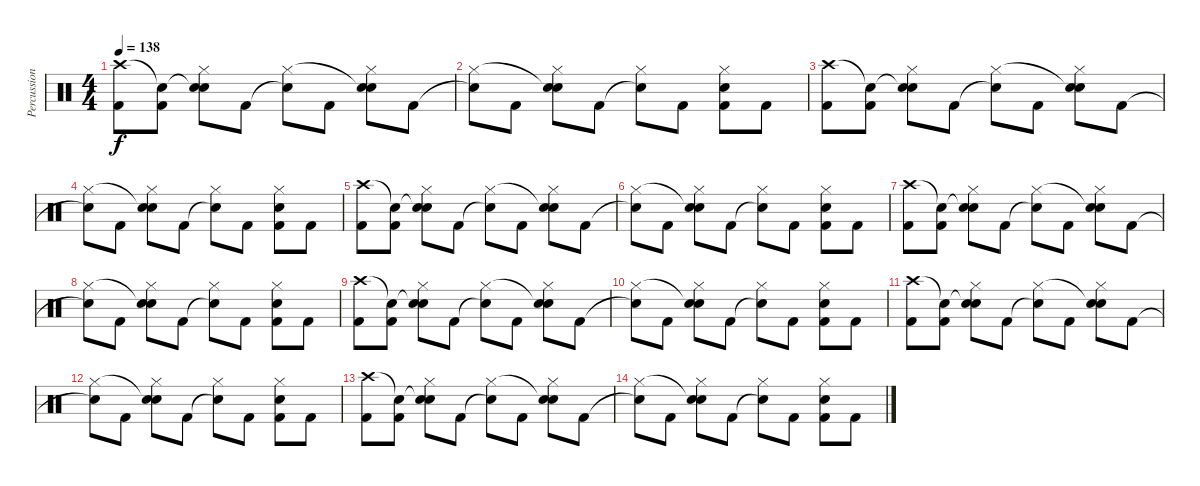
\track ("Percussion" "Percussion") {instrument percussion}
\staff {score}
\articulation defaults
\ts (4 4)
\tempo 138
\clef neutral
\ks c
("Kick (hit) 2" "Crash high (hit)").8{dy f} ("Kick (hit) 2" "Snare (hit)"{t}).8 ("Snare (hit) 2" "Snare (hit)"{t} "Hi-Hat (closed)").8 "Kick (hit) 2".8 ("Snare (hit)"{t} "Hi-Hat (closed)").8 "Kick (hit) 2".8 ("Snare (hit) 2" "Snare (hit)"{t} "Hi-Hat (closed)").8 "Kick (hit) 2".8 |
("Snare (hit)"{t} "Hi-Hat (closed)").8 "Kick (hit) 2".8 ("Snare (hit) 2" "Snare (hit)"{t} "Hi-Hat (closed)").8 "Kick (hit) 2".8 ("Snare (hit)"{t} "Hi-Hat (closed)").8 "Kick (hit) 2".8 ("Snare (hit) 2" "Kick (hit) 2" "Hi-Hat (closed)").8 "Kick (hit) 2".8 |
("Kick (hit) 2" "Crash high (hit)").8 ("Kick (hit) 2" "Snare (hit)"{t}).8 ("Snare (hit) 2" "Snare (hit)"{t} "Hi-Hat (closed)").8 "Kick (hit) 2".8 ("Snare (hit)"{t} "Hi-Hat (closed)").8 "Kick (hit) 2".8 ("Snare (hit) 2" "Snare (hit)"{t} "Hi-Hat (closed)").8 "Kick (hit) 2".8 |
("Snare (hit)"{t} "Hi-Hat (closed)").8 "Kick (hit) 2".8 ("Snare (hit) 2" "Snare (hit)"{t} "Hi-Hat (closed)").8 "Kick (hit) 2".8 ("Snare (hit)"{t} "Hi-Hat (closed)").8 "Kick (hit) 2".8 ("Snare (hit) 2" "Kick (hit) 2" "Hi-Hat (closed)").8 "Kick (hit) 2".8 |
("Kick (hit) 2" "Crash high (hit)").8 ("Kick (hit) 2" "Snare (hit)"{t}).8 ("Snare (hit) 2" "Snare (hit)"{t} "Hi-Hat (closed)").8 "Kick (hit) 2".8 ("Snare (hit)"{t} "Hi-Hat (closed)").8 "Kick (hit) 2".8 ("Snare (hit) 2" "Snare (hit)"{t} "Hi-Hat (closed)").8 "Kick (hit) 2".8 |
("Snare (hit)"{t} "Hi-Hat (closed)").8{volume 7} "Kick (hit) 2".8 ("Snare (hit) 2" "Snare (hit)"{t} "Hi-Hat (closed)").8 "Kick (hit) 2".8 ("Snare (hit)"{t} "Hi-Hat (closed)").8 "Kick (hit) 2".8 ("Snare (hit) 2" "Kick (hit) 2" "Hi-Hat (closed)").8 "Kick (hit) 2".8 |
("Kick (hit) 2" "Crash high (hit)").8 ("Kick (hit) 2" "Snare (hit)"{t}).8 ("Snare (hit) 2" "Snare (hit)"{t} "Hi-Hat (closed)").8 "Kick (hit) 2".8 ("Snare (hit)"{t} "Hi-Hat (closed)").8 "Kick (hit) 2".8 ("Snare (hit) 2" "Snare (hit)"{t} "Hi-Hat (closed)").8 "Kick (hit) 2".8 |
("Snare (hit)"{t} "Hi-Hat (closed)").8{volume 0} "Kick (hit) 2".8 ("Snare (hit) 2" "Snare (hit)"{t} "Hi-Hat (closed)").8 "Kick (hit) 2".8 ("Snare (hit)"{t} "Hi-Hat (closed)").8 "Kick (hit) 2".8 ("Snare (hit) 2" "Kick (hit) 2" "Hi-Hat (closed)").8 "Kick (hit) 2".8 |
("Kick (hit) 2" "Crash high (hit)").8 ("Kick (hit) 2" "Snare (hit)"{t}).8 ("Snare (hit) 2" "Snare (hit)"{t} "Hi-Hat (closed)").8 "Kick (hit) 2".8 ("Snare (hit)"{t} "Hi-Hat (closed)").8 "Kick (hit) 2".8 ("Snare (hit) 2" "Snare (hit)"{t} "Hi-Hat (closed)").8 "Kick (hit) 2".8 |
("Snare (hit)"{t} "Hi-Hat (closed)").8 "Kick (hit) 2".8 ("Snare (hit) 2" "Snare (hit)"{t} "Hi-Hat (closed)").8 "Kick (hit) 2".8 ("Snare (hit)"{t} "Hi-Hat (closed)").8 "Kick (hit) 2".8 ("Snare (hit) 2" "Kick (hit) 2" "Hi-Hat (closed)").8 "Kick (hit) 2".8 |
("Kick (hit) 2" "Crash high (hit)").8 ("Kick (hit) 2" "Snare (hit)"{t}).8 ("Snare (hit) 2" "Snare (hit)"{t} "Hi-Hat (closed)").8 "Kick (hit) 2".8 ("Snare (hit)"{t} "Hi-Hat (closed)").8 "Kick (hit) 2".8 ("Snare (hit) 2" "Snare (hit)"{t} "Hi-Hat (closed)").8 "Kick (hit) 2".8 |
("Snare (hit)"{t} "Hi-Hat (closed)").8 "Kick (hit) 2".8 ("Snare (hit) 2" "Snare (hit)"{t} "Hi-Hat (closed)").8 "Kick (hit) 2".8 ("Snare (hit)"{t} "Hi-Hat (closed)").8 "Kick (hit) 2".8 ("Snare (hit) 2" "Kick (hit) 2" "Hi-Hat (closed)").8 "Kick (hit) 2".8 |
("Kick (hit) 2" "Crash high (hit)").8 ("Kick (hit) 2" "Snare (hit)"{t}).8 ("Snare (hit) 2" "Snare (hit)"{t} "Hi-Hat (closed)").8 "Kick (hit) 2".8 ("Snare (hit)"{t} "Hi-Hat (closed)").8 "Kick (hit) 2".8 ("Snare (hit) 2" "Snare (hit)"{t} "Hi-Hat (closed)").8 "Kick (hit) 2".8 |
("Snare (hit)"{t} "Hi-Hat (closed)").8 "Kick (hit) 2".8 ("Snare (hit) 2" "Snare (hit)"{t} "Hi-Hat (closed)").8 "Kick (hit) 2".8 ("Snare (hit)"{t} "Hi-Hat (closed)").8 "Kick (hit) 2".8 ("Snare (hit) 2" "Kick (hit) 2" "Hi-Hat (closed)").8 "Kick (hit) 2".8
